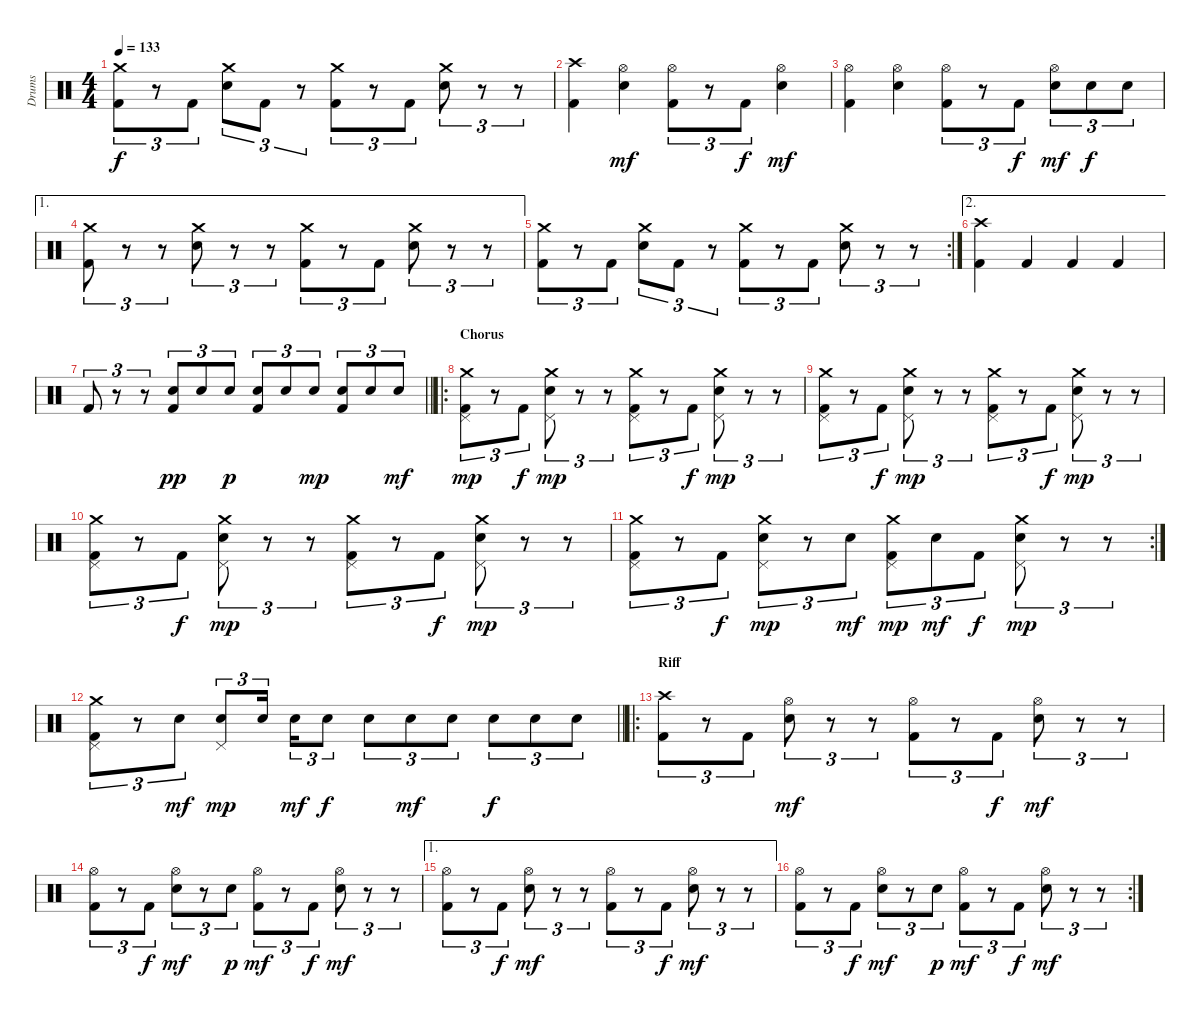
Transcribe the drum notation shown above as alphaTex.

\track ("Drums" "Drums") {instrument percussion}
\staff {score}
\articulation defaults
\ts (4 4)
\tempo 133
\clef neutral
\ks c
("Crash medium (hit)" "Kick (hit) 2").8{tu (3 2) dy f} r.8{tu (3 2)} "Kick (hit) 2".8{tu (3 2)} ("Crash medium (hit)" "Electric Snare (hit)").8{tu (3 2)} "Kick (hit) 2".8{tu (3 2)} r.8{tu (3 2)} ("Crash medium (hit)" "Kick (hit) 2").8{tu (3 2)} r.8{tu (3 2)} "Kick (hit) 2".8{tu (3 2)} ("Crash medium (hit)" "Electric Snare (hit)").8{tu (3 2)} r.8{tu (3 2)} r.8{tu (3 2)} |
("Crash high (hit)" "Kick (hit) 2").4 ("Hi-Hat (open)" "Electric Snare (hit)").4{dy mf} ("Hi-Hat (open)" "Kick (hit) 2").8{tu (3 2)} r.8{tu (3 2)} "Kick (hit) 2".8{tu (3 2) dy f} ("Hi-Hat (open)" "Electric Snare (hit)").4{dy mf} |
("Hi-Hat (open)" "Kick (hit) 2").4 ("Hi-Hat (open)" "Electric Snare (hit)").4 ("Hi-Hat (open)" "Kick (hit) 2").8{tu (3 2)} r.8{tu (3 2)} "Kick (hit) 2".8{tu (3 2) dy f} ("Hi-Hat (open)" "Electric Snare (hit)").8{tu (3 2) dy mf} "Electric Snare (hit)".8{tu (3 2) dy f} "Electric Snare (hit)".8{tu (3 2)} |
\ae 1
("Crash medium (hit)" "Kick (hit) 2").8{tu (3 2)} r.8{tu (3 2)} r.8{tu (3 2)} ("Crash medium (hit)" "Electric Snare (hit)").8{tu (3 2)} r.8{tu (3 2)} r.8{tu (3 2)} ("Crash medium (hit)" "Kick (hit) 2").8{tu (3 2)} r.8{tu (3 2)} "Kick (hit) 2".8{tu (3 2)} ("Crash medium (hit)" "Electric Snare (hit)").8{tu (3 2)} r.8{tu (3 2)} r.8{tu (3 2)} |
\rc 2
("Crash medium (hit)" "Kick (hit) 2").8{tu (3 2)} r.8{tu (3 2)} "Kick (hit) 2".8{tu (3 2)} ("Crash medium (hit)" "Electric Snare (hit)").8{tu (3 2)} "Kick (hit) 2".8{tu (3 2)} r.8{tu (3 2)} ("Crash medium (hit)" "Kick (hit) 2").8{tu (3 2)} r.8{tu (3 2)} "Kick (hit) 2".8{tu (3 2)} ("Crash medium (hit)" "Electric Snare (hit)").8{tu (3 2)} r.8{tu (3 2)} r.8{tu (3 2)} |
\ae 2
("Crash high (hit)" "Kick (hit) 2").4 "Kick (hit) 2".4 "Kick (hit) 2".4 "Kick (hit) 2".4 |
\barLineRight lightlight "Kick (hit) 2".8{tu (3 2)}
r.8{tu (3 2)} r.8{tu (3 2)} ("Electric Snare (hit)" "Kick (hit) 2").8{tu (3 2) dy pp} "Electric Snare (hit)".8{tu (3 2)} "Electric Snare (hit)".8{tu (3 2) dy p} ("Electric Snare (hit)" "Kick (hit) 2").8{tu (3 2)} "Electric Snare (hit)".8{tu (3 2)} "Electric Snare (hit)".8{tu (3 2) dy mp} ("Electric Snare (hit)" "Kick (hit) 2").8{tu (3 2)} "Electric Snare (hit)".8{tu (3 2)} "Electric Snare (hit)".8{tu (3 2) dy mf} |
\ro
\section ("" "Chorus")
("Crash medium (hit)" "Pedal Hi-Hat (hit)" "Kick (hit) 2").8{tu (3 2) dy mp} r.8{tu (3 2)} "Kick (hit) 2".8{tu (3 2) dy f} ("Crash medium (hit)" "Electric Snare (hit)" "Pedal Hi-Hat (hit)").8{tu (3 2) dy mp} r.8{tu (3 2)} r.8{tu (3 2)} ("Crash medium (hit)" "Pedal Hi-Hat (hit)" "Kick (hit) 2").8{tu (3 2)} r.8{tu (3 2)} "Kick (hit) 2".8{tu (3 2) dy f} ("Crash medium (hit)" "Electric Snare (hit)" "Pedal Hi-Hat (hit)").8{tu (3 2) dy mp} r.8{tu (3 2)} r.8{tu (3 2)} |
("Crash medium (hit)" "Pedal Hi-Hat (hit)" "Kick (hit) 2").8{tu (3 2)} r.8{tu (3 2)} "Kick (hit) 2".8{tu (3 2) dy f} ("Crash medium (hit)" "Electric Snare (hit)" "Pedal Hi-Hat (hit)").8{tu (3 2) dy mp} r.8{tu (3 2)} r.8{tu (3 2)} ("Crash medium (hit)" "Pedal Hi-Hat (hit)" "Kick (hit) 2").8{tu (3 2)} r.8{tu (3 2)} "Kick (hit) 2".8{tu (3 2) dy f} ("Crash medium (hit)" "Electric Snare (hit)" "Pedal Hi-Hat (hit)").8{tu (3 2) dy mp} r.8{tu (3 2)} r.8{tu (3 2)} |
("Crash medium (hit)" "Pedal Hi-Hat (hit)" "Kick (hit) 2").8{tu (3 2)} r.8{tu (3 2)} "Kick (hit) 2".8{tu (3 2) dy f} ("Crash medium (hit)" "Electric Snare (hit)" "Pedal Hi-Hat (hit)").8{tu (3 2) dy mp} r.8{tu (3 2)} r.8{tu (3 2)} ("Crash medium (hit)" "Pedal Hi-Hat (hit)" "Kick (hit) 2").8{tu (3 2)} r.8{tu (3 2)} "Kick (hit) 2".8{tu (3 2) dy f} ("Crash medium (hit)" "Electric Snare (hit)" "Pedal Hi-Hat (hit)").8{tu (3 2) dy mp} r.8{tu (3 2)} r.8{tu (3 2)} |
\rc 2
("Crash medium (hit)" "Pedal Hi-Hat (hit)" "Kick (hit) 2").8{tu (3 2)} r.8{tu (3 2)} "Kick (hit) 2".8{tu (3 2) dy f} ("Crash medium (hit)" "Electric Snare (hit)" "Pedal Hi-Hat (hit)").8{tu (3 2) dy mp} r.8{tu (3 2)} "Electric Snare (hit)".8{tu (3 2) dy mf} ("Crash medium (hit)" "Pedal Hi-Hat (hit)" "Kick (hit) 2").8{tu (3 2) dy mp} "Electric Snare (hit)".8{tu (3 2) dy mf} "Kick (hit) 2".8{tu (3 2) dy f} ("Crash medium (hit)" "Electric Snare (hit)" "Pedal Hi-Hat (hit)").8{tu (3 2) dy mp} r.8{tu (3 2)} r.8{tu (3 2)} |
\barLineRight lightlight
("Crash medium (hit)" "Pedal Hi-Hat (hit)" "Kick (hit) 2").8{tu (3 2)} r.8{tu (3 2)} "Electric Snare (hit)".8{tu (3 2) dy mf} ("Electric Snare (hit)" "Pedal Hi-Hat (hit)").8{tu (3 2) dy mp} "Electric Snare (hit)".16{tu (3 2) beam splitsecondary} "Electric Snare (hit)".16{tu (3 2) dy mf} "Electric Snare (hit)".8{tu (3 2) dy f} "Electric Snare (hit)".8{tu (3 2)} "Electric Snare (hit)".8{tu (3 2) dy mf} "Electric Snare (hit)".8{tu (3 2)} "Electric Snare (hit)".8{tu (3 2) dy f} "Electric Snare (hit)".8{tu (3 2)} "Electric Snare (hit)".8{tu (3 2)} |
\ro
\section ("" "Riff")
("Crash high (hit)" "Kick (hit) 2").8{tu (3 2)} r.8{tu (3 2)} "Kick (hit) 2".8{tu (3 2)} ("Hi-Hat (open)" "Electric Snare (hit)").8{tu (3 2) dy mf} r.8{tu (3 2)} r.8{tu (3 2)} ("Hi-Hat (open)" "Kick (hit) 2").8{tu (3 2)} r.8{tu (3 2)} "Kick (hit) 2".8{tu (3 2) dy f} ("Hi-Hat (open)" "Electric Snare (hit)").8{tu (3 2) dy mf} r.8{tu (3 2)} r.8{tu (3 2)} |
("Hi-Hat (open)" "Kick (hit) 2").8{tu (3 2)} r.8{tu (3 2)} "Kick (hit) 2".8{tu (3 2) dy f} ("Hi-Hat (open)" "Electric Snare (hit)").8{tu (3 2) dy mf} r.8{tu (3 2)} "Electric Snare (hit)".8{tu (3 2) dy p} ("Hi-Hat (open)" "Kick (hit) 2").8{tu (3 2) dy mf} r.8{tu (3 2)} "Kick (hit) 2".8{tu (3 2) dy f} ("Hi-Hat (open)" "Electric Snare (hit)").8{tu (3 2) dy mf} r.8{tu (3 2)} r.8{tu (3 2)} |
\ae 1
("Hi-Hat (open)" "Kick (hit) 2").8{tu (3 2)} r.8{tu (3 2)} "Kick (hit) 2".8{tu (3 2) dy f} ("Hi-Hat (open)" "Electric Snare (hit)").8{tu (3 2) dy mf} r.8{tu (3 2)} r.8{tu (3 2)} ("Hi-Hat (open)" "Kick (hit) 2").8{tu (3 2)} r.8{tu (3 2)} "Kick (hit) 2".8{tu (3 2) dy f} ("Hi-Hat (open)" "Electric Snare (hit)").8{tu (3 2) dy mf} r.8{tu (3 2)} r.8{tu (3 2)} |
\rc 2
("Hi-Hat (open)" "Kick (hit) 2").8{tu (3 2)} r.8{tu (3 2)} "Kick (hit) 2".8{tu (3 2) dy f} ("Hi-Hat (open)" "Electric Snare (hit)").8{tu (3 2) dy mf} r.8{tu (3 2)} "Electric Snare (hit)".8{tu (3 2) dy p} ("Hi-Hat (open)" "Kick (hit) 2").8{tu (3 2) dy mf} r.8{tu (3 2)} "Kick (hit) 2".8{tu (3 2) dy f} ("Hi-Hat (open)" "Electric Snare (hit)").8{tu (3 2) dy mf} r.8{tu (3 2)} r.8{tu (3 2)}
